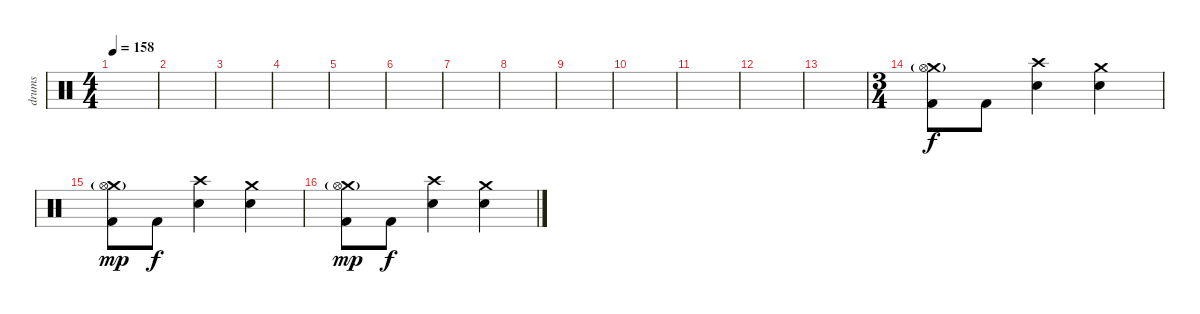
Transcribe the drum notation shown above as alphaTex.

\track ("drums" "drums") {instrument percussion}
\staff {score}
\articulation defaults
\ts (4 4)
\tempo 158
\clef neutral
\ks c
|
|
|
|
|
|
|
|
|
|
|
|
|
\ts (3 4)
("Crash medium (hit)"{g} "Hi-Hat (open)" "Kick (hit) 2").8 "Kick (hit) 2".8{dy f} ("Crash high (hit)" "Snare (hit) 2").4 ("Crash medium (hit)" "Snare (hit) 2").4 |
("Crash medium (hit)"{g} "Hi-Hat (open)" "Kick (hit) 2").8{dy mp} "Kick (hit) 2".8{dy f} ("Crash high (hit)" "Snare (hit) 2").4 ("Crash medium (hit)" "Snare (hit) 2").4 |
("Crash medium (hit)"{g} "Hi-Hat (open)" "Kick (hit) 2").8{dy mp} "Kick (hit) 2".8{dy f} ("Crash high (hit)" "Snare (hit) 2").4 ("Crash medium (hit)" "Snare (hit) 2").4
